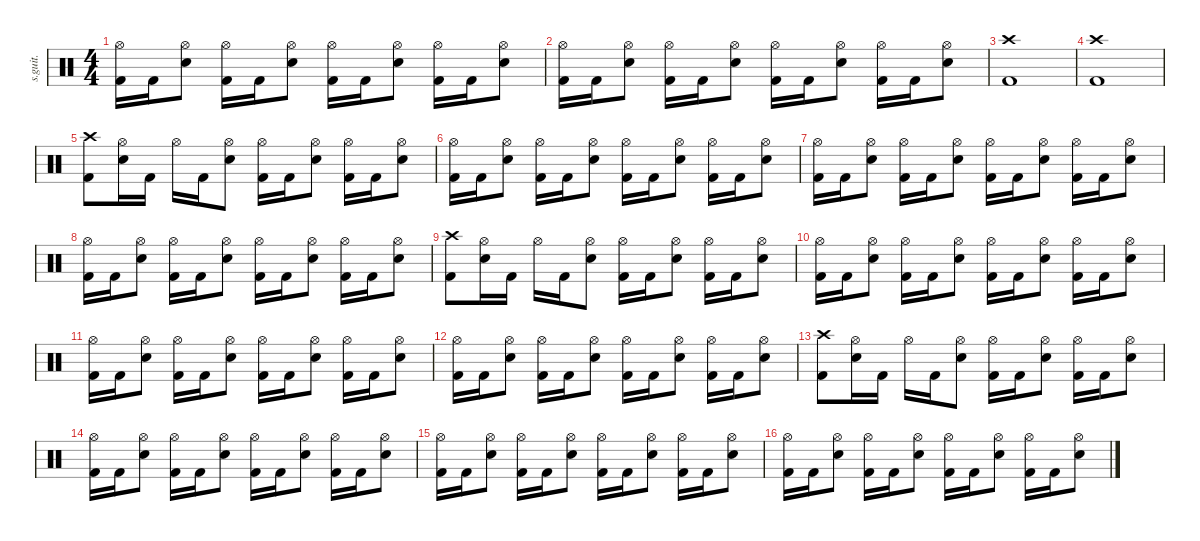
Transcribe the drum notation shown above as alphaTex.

\defaultSystemsLayout 4
\hideDynamics
\bracketExtendMode nobrackets
\track ("" "s.guit.") {instrument percussion}
\staff {score}
\articulation defaults
\ts (4 4)
\tempo (160 hide)
\clef neutral
\ks c
("Hi-Hat (open)" "Kick (hit) 2").16{dy f} "Kick (hit) 2".16 ("Hi-Hat (open)" "Snare (hit) 2").8 ("Hi-Hat (open)" "Kick (hit) 2").16 "Kick (hit) 2".16 ("Hi-Hat (open)" "Snare (hit) 2").8 ("Hi-Hat (open)" "Kick (hit) 2").16 "Kick (hit) 2".16 ("Hi-Hat (open)" "Snare (hit) 2").8 ("Hi-Hat (open)" "Kick (hit) 2").16 "Kick (hit) 2".16 ("Hi-Hat (open)" "Snare (hit) 2").8 |
("Hi-Hat (open)" "Kick (hit) 2").16 "Kick (hit) 2".16 ("Hi-Hat (open)" "Snare (hit) 2").8 ("Hi-Hat (open)" "Kick (hit) 2").16 "Kick (hit) 2".16 ("Hi-Hat (open)" "Snare (hit) 2").8 ("Hi-Hat (open)" "Kick (hit) 2").16 "Kick (hit) 2".16 ("Hi-Hat (open)" "Snare (hit) 2").8 ("Hi-Hat (open)" "Kick (hit) 2").16 "Kick (hit) 2".16 ("Hi-Hat (open)" "Snare (hit) 2").8 |
("Crash high (hit)" "Kick (hit) 2").1 |
("Crash high (hit)" "Kick (hit) 2").1 |
("Crash high (hit)" "Kick (hit) 2").8 ("Hi-Hat (open)" "Snare (hit) 2").16 "Kick (hit) 2".16 "Hi-Hat (open)".16 "Kick (hit) 2".16 ("Hi-Hat (open)" "Snare (hit) 2").8 ("Hi-Hat (open)" "Kick (hit) 2").16 "Kick (hit) 2".16 ("Hi-Hat (open)" "Snare (hit) 2").8 ("Hi-Hat (open)" "Kick (hit) 2").16 "Kick (hit) 2".16 ("Hi-Hat (open)" "Snare (hit) 2").8 |
("Hi-Hat (open)" "Kick (hit) 2").16 "Kick (hit) 2".16 ("Hi-Hat (open)" "Snare (hit) 2").8 ("Hi-Hat (open)" "Kick (hit) 2").16 "Kick (hit) 2".16 ("Hi-Hat (open)" "Snare (hit) 2").8 ("Hi-Hat (open)" "Kick (hit) 2").16 "Kick (hit) 2".16 ("Hi-Hat (open)" "Snare (hit) 2").8 ("Hi-Hat (open)" "Kick (hit) 2").16 "Kick (hit) 2".16 ("Hi-Hat (open)" "Snare (hit) 2").8 |
("Hi-Hat (open)" "Kick (hit) 2").16 "Kick (hit) 2".16 ("Hi-Hat (open)" "Snare (hit) 2").8 ("Hi-Hat (open)" "Kick (hit) 2").16 "Kick (hit) 2".16 ("Hi-Hat (open)" "Snare (hit) 2").8 ("Hi-Hat (open)" "Kick (hit) 2").16 "Kick (hit) 2".16 ("Hi-Hat (open)" "Snare (hit) 2").8 ("Hi-Hat (open)" "Kick (hit) 2").16 "Kick (hit) 2".16 ("Hi-Hat (open)" "Snare (hit) 2").8 |
("Hi-Hat (open)" "Kick (hit) 2").16 "Kick (hit) 2".16 ("Hi-Hat (open)" "Snare (hit) 2").8 ("Hi-Hat (open)" "Kick (hit) 2").16 "Kick (hit) 2".16 ("Hi-Hat (open)" "Snare (hit) 2").8 ("Hi-Hat (open)" "Kick (hit) 2").16 "Kick (hit) 2".16 ("Hi-Hat (open)" "Snare (hit) 2").8 ("Hi-Hat (open)" "Kick (hit) 2").16 "Kick (hit) 2".16 ("Hi-Hat (open)" "Snare (hit) 2").8 |
("Crash high (hit)" "Kick (hit) 2").8 ("Hi-Hat (open)" "Snare (hit) 2").16 "Kick (hit) 2".16 "Hi-Hat (open)".16 "Kick (hit) 2".16 ("Hi-Hat (open)" "Snare (hit) 2").8 ("Hi-Hat (open)" "Kick (hit) 2").16 "Kick (hit) 2".16 ("Hi-Hat (open)" "Snare (hit) 2").8 ("Hi-Hat (open)" "Kick (hit) 2").16 "Kick (hit) 2".16 ("Hi-Hat (open)" "Snare (hit) 2").8 |
("Hi-Hat (open)" "Kick (hit) 2").16 "Kick (hit) 2".16 ("Hi-Hat (open)" "Snare (hit) 2").8 ("Hi-Hat (open)" "Kick (hit) 2").16 "Kick (hit) 2".16 ("Hi-Hat (open)" "Snare (hit) 2").8 ("Hi-Hat (open)" "Kick (hit) 2").16 "Kick (hit) 2".16 ("Hi-Hat (open)" "Snare (hit) 2").8 ("Hi-Hat (open)" "Kick (hit) 2").16 "Kick (hit) 2".16 ("Hi-Hat (open)" "Snare (hit) 2").8 |
("Hi-Hat (open)" "Kick (hit) 2").16 "Kick (hit) 2".16 ("Hi-Hat (open)" "Snare (hit) 2").8 ("Hi-Hat (open)" "Kick (hit) 2").16 "Kick (hit) 2".16 ("Hi-Hat (open)" "Snare (hit) 2").8 ("Hi-Hat (open)" "Kick (hit) 2").16 "Kick (hit) 2".16 ("Hi-Hat (open)" "Snare (hit) 2").8 ("Hi-Hat (open)" "Kick (hit) 2").16 "Kick (hit) 2".16 ("Hi-Hat (open)" "Snare (hit) 2").8 |
("Hi-Hat (open)" "Kick (hit) 2").16 "Kick (hit) 2".16 ("Hi-Hat (open)" "Snare (hit) 2").8 ("Hi-Hat (open)" "Kick (hit) 2").16 "Kick (hit) 2".16 ("Hi-Hat (open)" "Snare (hit) 2").8 ("Hi-Hat (open)" "Kick (hit) 2").16 "Kick (hit) 2".16 ("Hi-Hat (open)" "Snare (hit) 2").8 ("Hi-Hat (open)" "Kick (hit) 2").16 "Kick (hit) 2".16 ("Hi-Hat (open)" "Snare (hit) 2").8 |
("Crash high (hit)" "Kick (hit) 2").8 ("Hi-Hat (open)" "Snare (hit) 2").16 "Kick (hit) 2".16 "Hi-Hat (open)".16 "Kick (hit) 2".16 ("Hi-Hat (open)" "Snare (hit) 2").8 ("Hi-Hat (open)" "Kick (hit) 2").16 "Kick (hit) 2".16 ("Hi-Hat (open)" "Snare (hit) 2").8 ("Hi-Hat (open)" "Kick (hit) 2").16 "Kick (hit) 2".16 ("Hi-Hat (open)" "Snare (hit) 2").8 |
("Hi-Hat (open)" "Kick (hit) 2").16 "Kick (hit) 2".16 ("Hi-Hat (open)" "Snare (hit) 2").8 ("Hi-Hat (open)" "Kick (hit) 2").16 "Kick (hit) 2".16 ("Hi-Hat (open)" "Snare (hit) 2").8 ("Hi-Hat (open)" "Kick (hit) 2").16 "Kick (hit) 2".16 ("Hi-Hat (open)" "Snare (hit) 2").8 ("Hi-Hat (open)" "Kick (hit) 2").16 "Kick (hit) 2".16 ("Hi-Hat (open)" "Snare (hit) 2").8 |
("Hi-Hat (open)" "Kick (hit) 2").16 "Kick (hit) 2".16 ("Hi-Hat (open)" "Snare (hit) 2").8 ("Hi-Hat (open)" "Kick (hit) 2").16 "Kick (hit) 2".16 ("Hi-Hat (open)" "Snare (hit) 2").8 ("Hi-Hat (open)" "Kick (hit) 2").16 "Kick (hit) 2".16 ("Hi-Hat (open)" "Snare (hit) 2").8 ("Hi-Hat (open)" "Kick (hit) 2").16 "Kick (hit) 2".16 ("Hi-Hat (open)" "Snare (hit) 2").8 |
("Hi-Hat (open)" "Kick (hit) 2").16 "Kick (hit) 2".16 ("Hi-Hat (open)" "Snare (hit) 2").8 ("Hi-Hat (open)" "Kick (hit) 2").16 "Kick (hit) 2".16 ("Hi-Hat (open)" "Snare (hit) 2").8 ("Hi-Hat (open)" "Kick (hit) 2").16 "Kick (hit) 2".16 ("Hi-Hat (open)" "Snare (hit) 2").8 ("Hi-Hat (open)" "Kick (hit) 2").16 "Kick (hit) 2".16 ("Hi-Hat (open)" "Snare (hit) 2").8
